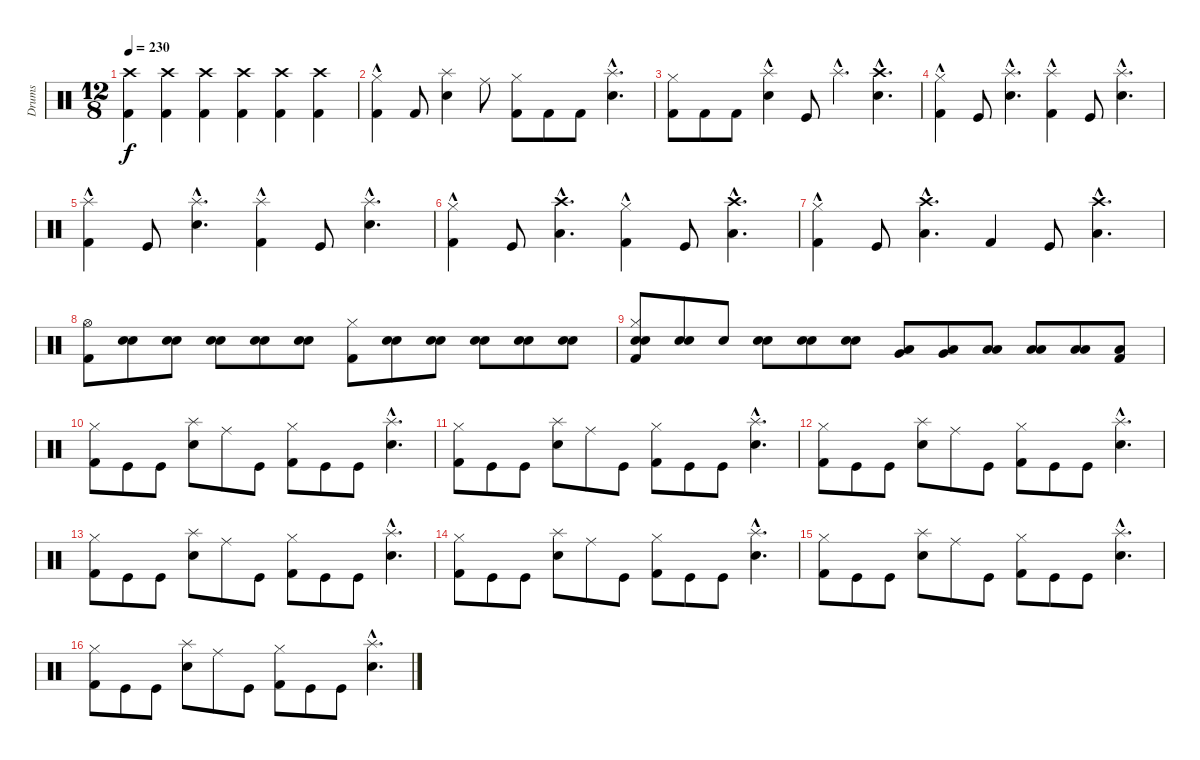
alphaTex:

\track ("Drums" "Drums") {instrument percussion}
\staff {score}
\articulation defaults
\ts (12 8)
\tempo 230
\clef neutral
\ks c
("Crash high (hit)" "Kick (hit) 2").4{dy f} ("Crash high (hit)" "Kick (hit) 2").4 ("Crash high (hit)" "Kick (hit) 2").4 ("Crash high (hit)" "Kick (hit) 2").4 ("Crash high (hit)" "Kick (hit) 2").4 ("Crash high (hit)" "Kick (hit) 2").4 |
("Hi-Hat (closed)"{hac} "Kick (hit) 2").4 "Kick (hit) 2".8 ("Splash (hit)" "Snare (hit) 2").4 "Ride (middle)".8 ("Hi-Hat (closed)" "Kick (hit) 2").8 "Kick (hit) 2".8 "Kick (hit) 2".8 ("Splash (hit)"{hac} "Electric Snare (hit)"{hac}).4{d} |
("Hi-Hat (closed)" "Kick (hit) 2").8 "Kick (hit) 2".8 "Kick (hit) 2".8 ("Splash (hit)"{hac} "Snare (hit) 2").4 "Kick (hit)".8 "Splash (hit)"{hac}.4{d} ("Crash high (hit)"{hac} "Snare (hit) 2"{hac}).4{d} |
("Hi-Hat (closed)"{hac} "Kick (hit) 2").4 "Kick (hit)".8 ("Snare (hit) 2"{hac} "Splash (hit)"{hac}).4{d} ("Kick (hit) 2" "Splash (hit)"{hac}).4 "Kick (hit)".8 ("Snare (hit) 2"{hac} "Splash (hit)"{hac}).4{d} |
("Kick (hit) 2" "Splash (hit)"{hac}).4 "Kick (hit)".8 ("Snare (hit) 2"{hac} "Splash (hit)"{hac}).4{d} ("Kick (hit) 2" "Splash (hit)"{hac}).4 "Kick (hit)".8 ("Snare (hit) 2"{hac} "Splash (hit)"{hac}).4{d} |
("Kick (hit) 2" "Hi-Hat (closed)"{hac}).4 "Kick (hit)".8 ("Crash high (hit)"{hac} "Low Tom (hit)"{hac}).4{d} ("Hi-Hat (closed)"{hac} "Kick (hit) 2").4 "Kick (hit)".8 ("Crash high (hit)"{hac} "Low Tom (hit)"{hac}).4{d} |
("Hi-Hat (closed)"{hac} "Kick (hit) 2").4 "Kick (hit)".8 ("Crash high (hit)"{hac} "Low Tom (hit)"{hac}).4{d} "Kick (hit) 2".4 "Kick (hit)".8 ("Crash high (hit)"{hac} "Low Tom (hit)"{hac}).4{d} |
("Hi-Hat (open)" "Kick (hit) 2").8 ("Electric Snare (hit)" "Electric Snare (hit)").8 ("Electric Snare (hit)" "Electric Snare (hit)").8 ("Electric Snare (hit)" "Electric Snare (hit)").8 ("Electric Snare (hit)" "Electric Snare (hit)").8 ("Electric Snare (hit)" "Electric Snare (hit)").8 ("Hi-Hat (closed)" "Kick (hit) 2").8 ("Electric Snare (hit)" "Snare (hit) 2").8 ("Electric Snare (hit)" "Snare (hit) 2").8 ("Electric Snare (hit)" "Snare (hit) 2").8 ("Electric Snare (hit)" "Snare (hit) 2").8 ("Electric Snare (hit)" "Snare (hit) 2").8 |
("Electric Snare (hit)" "Hi-Hat (closed)" "Snare (hit) 2" "Kick (hit) 2").8 ("Electric Snare (hit)" "Snare (hit) 2").8 "Snare (hit) 2".8 ("Electric Snare (hit)" "Snare (hit) 2").8 ("Electric Snare (hit)" "Snare (hit) 2").8 ("Electric Snare (hit)" "Snare (hit) 2").8 ("Very Low Tom (hit)" "Low Tom (hit)").8 ("Very Low Tom (hit)" "Low Tom (hit)").8 ("Low Floor Tom (hit)" "Low Tom (hit)").8 ("Low Tom (hit)" "Low Floor Tom (hit)").8 ("Low Tom (hit)" "Low Floor Tom (hit)").8 ("Low Tom (hit)" "Kick (hit) 2").8 |
("Hi-Hat (closed)" "Kick (hit) 2").8 "Kick (hit)".8 "Kick (hit)".8 ("Splash (hit)" "Snare (hit) 2").8 "Ride (middle)".8 "Kick (hit)".8 ("Hi-Hat (closed)" "Kick (hit) 2").8 "Kick (hit)".8 "Kick (hit)".8 ("Splash (hit)"{hac} "Snare (hit) 2"{hac}).4{d} |
("Hi-Hat (closed)" "Kick (hit) 2").8 "Kick (hit)".8 "Kick (hit)".8 ("Splash (hit)" "Snare (hit) 2").8 "Ride (middle)".8 "Kick (hit)".8 ("Hi-Hat (closed)" "Kick (hit) 2").8 "Kick (hit)".8 "Kick (hit)".8 ("Splash (hit)"{hac} "Snare (hit) 2"{hac}).4{d} |
("Hi-Hat (closed)" "Kick (hit) 2").8 "Kick (hit)".8 "Kick (hit)".8 ("Splash (hit)" "Snare (hit) 2").8 "Ride (middle)".8 "Kick (hit)".8 ("Hi-Hat (closed)" "Kick (hit) 2").8 "Kick (hit)".8 "Kick (hit)".8 ("Splash (hit)"{hac} "Snare (hit) 2"{hac}).4{d} |
("Hi-Hat (closed)" "Kick (hit) 2").8 "Kick (hit)".8 "Kick (hit)".8 ("Splash (hit)" "Snare (hit) 2").8 "Ride (middle)".8 "Kick (hit)".8 ("Hi-Hat (closed)" "Kick (hit) 2").8 "Kick (hit)".8 "Kick (hit)".8 ("Splash (hit)"{hac} "Snare (hit) 2"{hac}).4{d} |
("Hi-Hat (closed)" "Kick (hit) 2").8 "Kick (hit)".8 "Kick (hit)".8 ("Splash (hit)" "Snare (hit) 2").8 "Ride (middle)".8 "Kick (hit)".8 ("Hi-Hat (closed)" "Kick (hit) 2").8 "Kick (hit)".8 "Kick (hit)".8 ("Splash (hit)"{hac} "Snare (hit) 2"{hac}).4{d} |
("Hi-Hat (closed)" "Kick (hit) 2").8 "Kick (hit)".8 "Kick (hit)".8 ("Splash (hit)" "Snare (hit) 2").8 "Ride (middle)".8 "Kick (hit)".8 ("Hi-Hat (closed)" "Kick (hit) 2").8 "Kick (hit)".8 "Kick (hit)".8 ("Splash (hit)"{hac} "Snare (hit) 2"{hac}).4{d} |
("Hi-Hat (closed)" "Kick (hit) 2").8 "Kick (hit)".8 "Kick (hit)".8 ("Splash (hit)" "Snare (hit) 2").8 "Ride (middle)".8 "Kick (hit)".8 ("Hi-Hat (closed)" "Kick (hit) 2").8 "Kick (hit)".8 "Kick (hit)".8 ("Splash (hit)"{hac} "Snare (hit) 2"{hac}).4{d}
